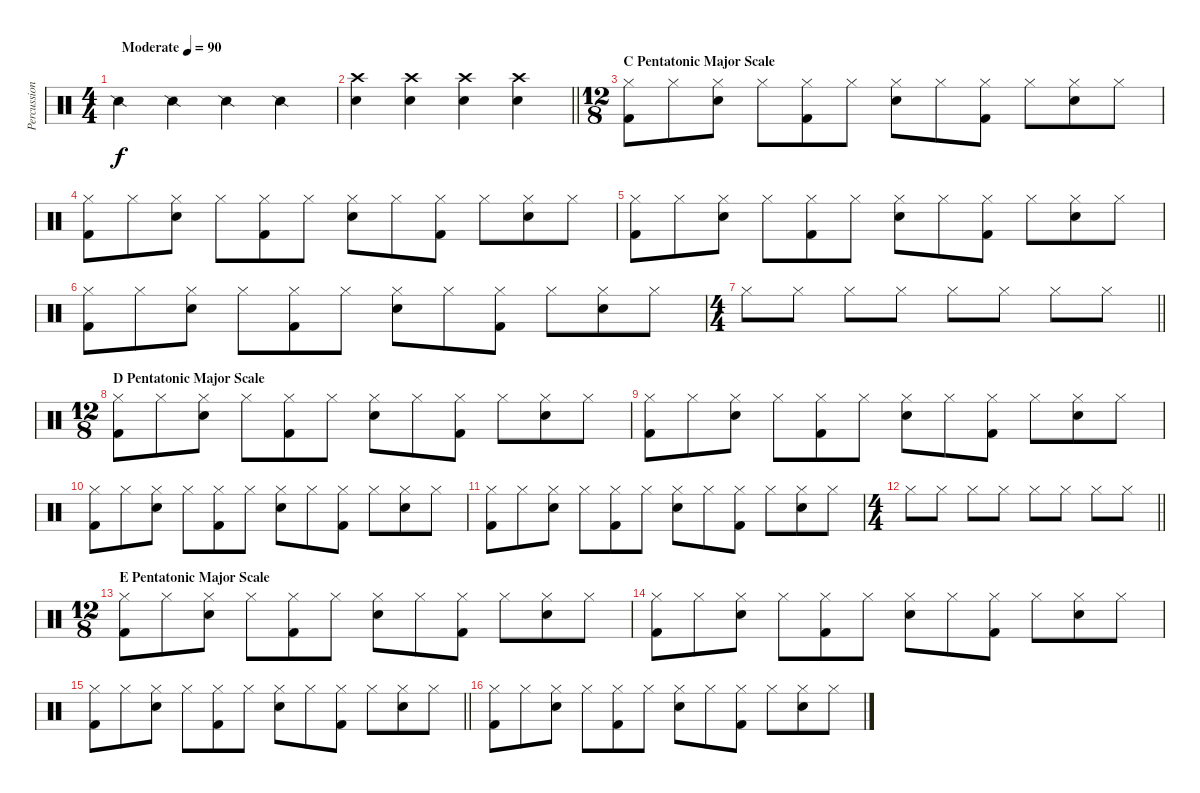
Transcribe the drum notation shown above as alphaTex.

\track ("Percussion" "Percussion") {instrument percussion}
\staff {score}
\articulation defaults
\ts (4 4)
\tempo (90 "Moderate")
\clef neutral
\ks c "Snare (side stick) 2".4{dy f} "Snare (side stick) 2".4 "Snare (side stick) 2".4 "Snare (side stick) 2".4
|
\barLineRight lightlight
("Crash high (hit)" "Snare (hit) 2").4 ("Crash high (hit)" "Snare (hit) 2").4 ("Crash high (hit)" "Snare (hit) 2").4 ("Crash high (hit)" "Snare (hit) 2").4 |
\ts (12 8)
\section ("" "C Pentatonic Major Scale")
("Kick (hit) 2" "Hi-Hat (closed)").8 "Hi-Hat (closed)".8 ("Snare (hit) 2" "Hi-Hat (closed)").8 "Hi-Hat (closed)".8 ("Kick (hit) 2" "Hi-Hat (closed)").8 "Hi-Hat (closed)".8 ("Snare (hit) 2" "Hi-Hat (closed)").8 "Hi-Hat (closed)".8 ("Kick (hit) 2" "Hi-Hat (closed)").8 "Hi-Hat (closed)".8 ("Snare (hit) 2" "Hi-Hat (closed)").8 "Hi-Hat (closed)".8 |
("Kick (hit) 2" "Hi-Hat (closed)").8 "Hi-Hat (closed)".8 ("Snare (hit) 2" "Hi-Hat (closed)").8 "Hi-Hat (closed)".8 ("Kick (hit) 2" "Hi-Hat (closed)").8 "Hi-Hat (closed)".8 ("Snare (hit) 2" "Hi-Hat (closed)").8 "Hi-Hat (closed)".8 ("Kick (hit) 2" "Hi-Hat (closed)").8 "Hi-Hat (closed)".8 ("Snare (hit) 2" "Hi-Hat (closed)").8 "Hi-Hat (closed)".8 |
("Kick (hit) 2" "Hi-Hat (closed)").8 "Hi-Hat (closed)".8 ("Snare (hit) 2" "Hi-Hat (closed)").8 "Hi-Hat (closed)".8 ("Kick (hit) 2" "Hi-Hat (closed)").8 "Hi-Hat (closed)".8 ("Snare (hit) 2" "Hi-Hat (closed)").8 "Hi-Hat (closed)".8 ("Kick (hit) 2" "Hi-Hat (closed)").8 "Hi-Hat (closed)".8 ("Snare (hit) 2" "Hi-Hat (closed)").8 "Hi-Hat (closed)".8 |
("Kick (hit) 2" "Hi-Hat (closed)").8 "Hi-Hat (closed)".8 ("Snare (hit) 2" "Hi-Hat (closed)").8 "Hi-Hat (closed)".8 ("Kick (hit) 2" "Hi-Hat (closed)").8 "Hi-Hat (closed)".8 ("Snare (hit) 2" "Hi-Hat (closed)").8 "Hi-Hat (closed)".8 ("Kick (hit) 2" "Hi-Hat (closed)").8 "Hi-Hat (closed)".8 ("Snare (hit) 2" "Hi-Hat (closed)").8 "Hi-Hat (closed)".8 |
\ts (4 4)
\barLineRight lightlight "Hi-Hat (closed)".8 "Hi-Hat (closed)".8 "Hi-Hat (closed)".8 "Hi-Hat (closed)".8 "Hi-Hat (closed)".8 "Hi-Hat (closed)".8 "Hi-Hat (closed)".8 "Hi-Hat (closed)".8
|
\ts (12 8)
\section ("" "D Pentatonic Major Scale")
("Kick (hit) 2" "Hi-Hat (closed)").8 "Hi-Hat (closed)".8 ("Snare (hit) 2" "Hi-Hat (closed)").8 "Hi-Hat (closed)".8 ("Kick (hit) 2" "Hi-Hat (closed)").8 "Hi-Hat (closed)".8 ("Snare (hit) 2" "Hi-Hat (closed)").8 "Hi-Hat (closed)".8 ("Kick (hit) 2" "Hi-Hat (closed)").8 "Hi-Hat (closed)".8 ("Snare (hit) 2" "Hi-Hat (closed)").8 "Hi-Hat (closed)".8 |
("Kick (hit) 2" "Hi-Hat (closed)").8 "Hi-Hat (closed)".8 ("Snare (hit) 2" "Hi-Hat (closed)").8 "Hi-Hat (closed)".8 ("Kick (hit) 2" "Hi-Hat (closed)").8 "Hi-Hat (closed)".8 ("Snare (hit) 2" "Hi-Hat (closed)").8 "Hi-Hat (closed)".8 ("Kick (hit) 2" "Hi-Hat (closed)").8 "Hi-Hat (closed)".8 ("Snare (hit) 2" "Hi-Hat (closed)").8 "Hi-Hat (closed)".8 |
("Kick (hit) 2" "Hi-Hat (closed)").8 "Hi-Hat (closed)".8 ("Snare (hit) 2" "Hi-Hat (closed)").8 "Hi-Hat (closed)".8 ("Kick (hit) 2" "Hi-Hat (closed)").8 "Hi-Hat (closed)".8 ("Snare (hit) 2" "Hi-Hat (closed)").8 "Hi-Hat (closed)".8 ("Kick (hit) 2" "Hi-Hat (closed)").8 "Hi-Hat (closed)".8 ("Snare (hit) 2" "Hi-Hat (closed)").8 "Hi-Hat (closed)".8 |
("Kick (hit) 2" "Hi-Hat (closed)").8 "Hi-Hat (closed)".8 ("Snare (hit) 2" "Hi-Hat (closed)").8 "Hi-Hat (closed)".8 ("Kick (hit) 2" "Hi-Hat (closed)").8 "Hi-Hat (closed)".8 ("Snare (hit) 2" "Hi-Hat (closed)").8 "Hi-Hat (closed)".8 ("Kick (hit) 2" "Hi-Hat (closed)").8 "Hi-Hat (closed)".8 ("Snare (hit) 2" "Hi-Hat (closed)").8 "Hi-Hat (closed)".8 |
\ts (4 4)
\barLineRight lightlight "Hi-Hat (closed)".8 "Hi-Hat (closed)".8 "Hi-Hat (closed)".8 "Hi-Hat (closed)".8 "Hi-Hat (closed)".8 "Hi-Hat (closed)".8 "Hi-Hat (closed)".8 "Hi-Hat (closed)".8
|
\ts (12 8)
\section ("" "E Pentatonic Major Scale")
("Kick (hit) 2" "Hi-Hat (closed)").8 "Hi-Hat (closed)".8 ("Snare (hit) 2" "Hi-Hat (closed)").8 "Hi-Hat (closed)".8 ("Kick (hit) 2" "Hi-Hat (closed)").8 "Hi-Hat (closed)".8 ("Snare (hit) 2" "Hi-Hat (closed)").8 "Hi-Hat (closed)".8 ("Kick (hit) 2" "Hi-Hat (closed)").8 "Hi-Hat (closed)".8 ("Snare (hit) 2" "Hi-Hat (closed)").8 "Hi-Hat (closed)".8 |
("Kick (hit) 2" "Hi-Hat (closed)").8 "Hi-Hat (closed)".8 ("Snare (hit) 2" "Hi-Hat (closed)").8 "Hi-Hat (closed)".8 ("Kick (hit) 2" "Hi-Hat (closed)").8 "Hi-Hat (closed)".8 ("Snare (hit) 2" "Hi-Hat (closed)").8 "Hi-Hat (closed)".8 ("Kick (hit) 2" "Hi-Hat (closed)").8 "Hi-Hat (closed)".8 ("Snare (hit) 2" "Hi-Hat (closed)").8 "Hi-Hat (closed)".8 |
\barLineRight lightlight
("Kick (hit) 2" "Hi-Hat (closed)").8 "Hi-Hat (closed)".8 ("Snare (hit) 2" "Hi-Hat (closed)").8 "Hi-Hat (closed)".8 ("Kick (hit) 2" "Hi-Hat (closed)").8 "Hi-Hat (closed)".8 ("Snare (hit) 2" "Hi-Hat (closed)").8 "Hi-Hat (closed)".8 ("Kick (hit) 2" "Hi-Hat (closed)").8 "Hi-Hat (closed)".8 ("Snare (hit) 2" "Hi-Hat (closed)").8 "Hi-Hat (closed)".8 |
("Kick (hit) 2" "Hi-Hat (closed)").8 "Hi-Hat (closed)".8 ("Snare (hit) 2" "Hi-Hat (closed)").8 "Hi-Hat (closed)".8 ("Kick (hit) 2" "Hi-Hat (closed)").8 "Hi-Hat (closed)".8 ("Snare (hit) 2" "Hi-Hat (closed)").8 "Hi-Hat (closed)".8 ("Kick (hit) 2" "Hi-Hat (closed)").8 "Hi-Hat (closed)".8 ("Snare (hit) 2" "Hi-Hat (closed)").8 "Hi-Hat (closed)".8
